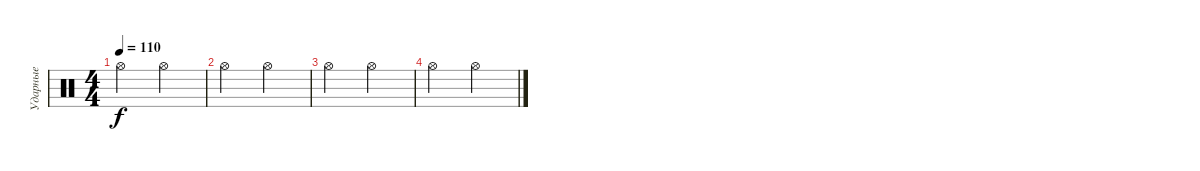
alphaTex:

\track ("Ударные" "Ударные") {instrument percussion}
\staff {score}
\articulation defaults
\ts (4 4)
\tempo 110
\clef neutral
\ks c "Hi-Hat (open)".2{dy f} "Hi-Hat (open)".2
|
"Hi-Hat (open)".2 "Hi-Hat (open)".2 |
"Hi-Hat (open)".2 "Hi-Hat (open)".2 |
"Hi-Hat (open)".2 "Hi-Hat (open)".2
